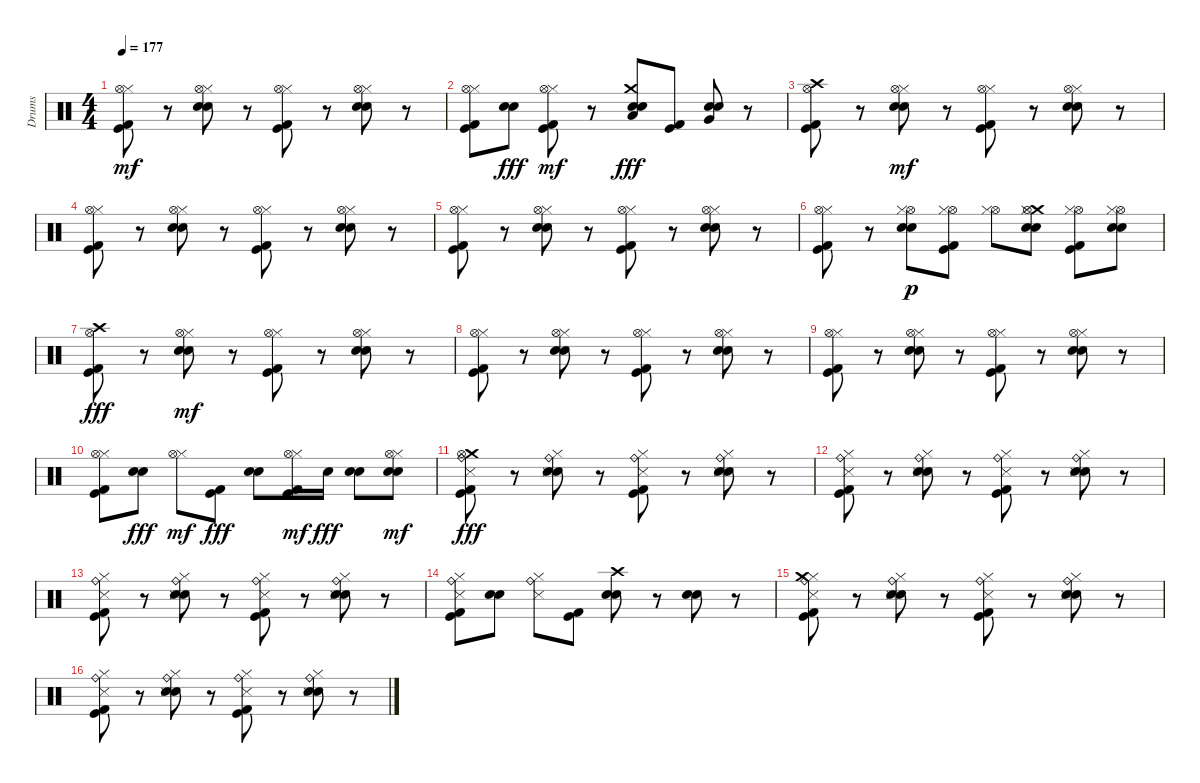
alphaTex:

\track ("Drums" "Drums") {instrument percussion}
\staff {score}
\articulation defaults
\ts (4 4)
\tempo 177
\clef neutral
\ks c
("Hi-Hat (closed)" "Kick (hit) 2" "Kick (hit)" "Hi-Hat (open)").8{dy mf} r.8 ("Hi-Hat (closed)" "Electric Snare (hit)" "Snare (hit) 2" "Hi-Hat (open)").8 r.8 ("Hi-Hat (closed)" "Kick (hit) 2" "Kick (hit)" "Hi-Hat (open)").8 r.8 ("Hi-Hat (closed)" "Electric Snare (hit)" "Snare (hit) 2" "Hi-Hat (open)").8 r.8 |
("Kick (hit) 2" "Kick (hit)" "Hi-Hat (closed)" "Hi-Hat (open)").8 ("Electric Snare (hit)" "Snare (hit) 2").8{dy fff} ("Kick (hit) 2" "Kick (hit)" "Hi-Hat (closed)" "Hi-Hat (open)").8{dy mf} r.8 ("Electric Snare (hit)" "Snare (hit) 2" "Crash medium (hit)" "Low Tom (hit)").8{dy fff} ("Kick (hit) 2" "Kick (hit)").8 ("Electric Snare (hit)" "Snare (hit) 2" "Very Low Tom (hit)").8 r.8 |
("Crash high (hit)" "Kick (hit) 2" "Kick (hit)" "Hi-Hat (open)").8 r.8 ("Hi-Hat (closed)" "Electric Snare (hit)" "Snare (hit) 2" "Hi-Hat (open)").8{dy mf} r.8 ("Hi-Hat (closed)" "Kick (hit) 2" "Kick (hit)" "Hi-Hat (open)").8 r.8 ("Hi-Hat (closed)" "Electric Snare (hit)" "Snare (hit) 2" "Hi-Hat (open)").8 r.8 |
("Hi-Hat (closed)" "Kick (hit) 2" "Kick (hit)" "Hi-Hat (open)").8 r.8 ("Hi-Hat (closed)" "Electric Snare (hit)" "Snare (hit) 2" "Hi-Hat (open)").8 r.8 ("Hi-Hat (closed)" "Kick (hit) 2" "Kick (hit)" "Hi-Hat (open)").8 r.8 ("Hi-Hat (closed)" "Electric Snare (hit)" "Snare (hit) 2" "Hi-Hat (open)").8 r.8 |
("Hi-Hat (closed)" "Kick (hit) 2" "Kick (hit)" "Hi-Hat (open)").8 r.8 ("Hi-Hat (closed)" "Electric Snare (hit)" "Snare (hit) 2" "Hi-Hat (open)").8 r.8 ("Hi-Hat (closed)" "Kick (hit) 2" "Kick (hit)" "Hi-Hat (open)").8 r.8 ("Hi-Hat (closed)" "Electric Snare (hit)" "Snare (hit) 2" "Hi-Hat (open)").8 r.8 |
("Kick (hit)" "Kick (hit) 2" "Hi-Hat (closed)" "Hi-Hat (open)").8 r.8 ("Electric Snare (hit)" "Snare (hit) 2" "Hi-Hat (open)" "Hi-Hat (closed)").8{dy p} ("Kick (hit) 2" "Kick (hit)" "Hi-Hat (open)" "Hi-Hat (closed)").8 ("Hi-Hat (open)" "Hi-Hat (closed)").8 ("Electric Snare (hit)" "Snare (hit) 2" "Crash medium (hit)" "Hi-Hat (open)" "Hi-Hat (closed)").8 ("Kick (hit) 2" "Kick (hit)" "Hi-Hat (open)" "Hi-Hat (closed)").8 ("Electric Snare (hit)" "Snare (hit) 2" "Hi-Hat (open)" "Hi-Hat (closed)").8 |
("Crash high (hit)" "Kick (hit) 2" "Kick (hit)" "Hi-Hat (open)").8{dy fff} r.8 ("Hi-Hat (closed)" "Electric Snare (hit)" "Snare (hit) 2" "Hi-Hat (open)").8{dy mf} r.8 ("Hi-Hat (closed)" "Kick (hit) 2" "Kick (hit)" "Hi-Hat (open)").8 r.8 ("Hi-Hat (closed)" "Electric Snare (hit)" "Snare (hit) 2" "Hi-Hat (open)").8 r.8 |
("Hi-Hat (closed)" "Kick (hit) 2" "Kick (hit)" "Hi-Hat (open)").8 r.8 ("Hi-Hat (closed)" "Electric Snare (hit)" "Snare (hit) 2" "Hi-Hat (open)").8 r.8 ("Hi-Hat (closed)" "Kick (hit) 2" "Kick (hit)" "Hi-Hat (open)").8 r.8 ("Hi-Hat (closed)" "Electric Snare (hit)" "Snare (hit) 2" "Hi-Hat (open)").8 r.8 |
("Hi-Hat (closed)" "Kick (hit) 2" "Kick (hit)" "Hi-Hat (open)").8 r.8 ("Hi-Hat (closed)" "Electric Snare (hit)" "Snare (hit) 2" "Hi-Hat (open)").8 r.8 ("Hi-Hat (closed)" "Kick (hit) 2" "Kick (hit)" "Hi-Hat (open)").8 r.8 ("Hi-Hat (closed)" "Electric Snare (hit)" "Snare (hit) 2" "Hi-Hat (open)").8 r.8 |
("Kick (hit)" "Kick (hit) 2" "Hi-Hat (closed)" "Hi-Hat (open)").8 ("Electric Snare (hit)" "Snare (hit) 2").8{dy fff} ("Hi-Hat (closed)" "Hi-Hat (open)").8{dy mf} ("Kick (hit) 2" "Kick (hit)").8{dy fff} ("Electric Snare (hit)" "Snare (hit) 2").8 ("Kick (hit) 2" "Kick (hit)" "Hi-Hat (closed)" "Hi-Hat (open)").16{dy mf} "Snare (hit) 2".16{dy fff} ("Electric Snare (hit)" "Snare (hit) 2").8 ("Electric Snare (hit)" "Snare (hit) 2" "Hi-Hat (closed)" "Hi-Hat (open)").8{dy mf} |
("Crash medium (hit)" "Kick (hit) 2" "Kick (hit)" "Hi-Hat (open)" "Snare (side stick) 3" "Ride (bell)").8{dy fff} r.8 ("Hi-Hat (closed)" "Electric Snare (hit)" "Snare (hit) 2" "Snare (side stick) 3" "Ride (bell)").8 r.8 ("Hi-Hat (closed)" "Kick (hit) 2" "Kick (hit)" "Snare (side stick) 3" "Ride (bell)").8 r.8 ("Hi-Hat (closed)" "Electric Snare (hit)" "Snare (hit) 2" "Snare (side stick) 3" "Ride (bell)").8 r.8 |
("Hi-Hat (closed)" "Kick (hit) 2" "Kick (hit)" "Snare (side stick) 3" "Ride (bell)").8 r.8 ("Hi-Hat (closed)" "Electric Snare (hit)" "Snare (hit) 2" "Snare (side stick) 3" "Ride (bell)").8 r.8 ("Hi-Hat (closed)" "Kick (hit) 2" "Kick (hit)" "Snare (side stick) 3" "Ride (bell)").8 r.8 ("Hi-Hat (closed)" "Electric Snare (hit)" "Snare (hit) 2" "Snare (side stick) 3" "Ride (bell)").8 r.8 |
("Hi-Hat (closed)" "Kick (hit) 2" "Kick (hit)" "Ride (bell)" "Snare (side stick) 3").8 r.8 ("Hi-Hat (closed)" "Electric Snare (hit)" "Snare (hit) 2" "Ride (bell)" "Snare (side stick) 3").8 r.8 ("Hi-Hat (closed)" "Kick (hit) 2" "Kick (hit)" "Ride (bell)" "Snare (side stick) 3").8 r.8 ("Hi-Hat (closed)" "Electric Snare (hit)" "Snare (hit) 2" "Ride (bell)" "Snare (side stick) 3").8 r.8 |
("Kick (hit) 2" "Kick (hit)" "Ride (bell)" "Hi-Hat (closed)" "Snare (side stick) 3").8 ("Electric Snare (hit)" "Snare (hit) 2").8 ("Ride (bell)" "Hi-Hat (closed)" "Snare (side stick) 3").8 ("Kick (hit) 2" "Kick (hit)").8 ("Electric Snare (hit)" "Snare (hit) 2" "Crash high (hit)").8 r.8 ("Electric Snare (hit)" "Snare (hit) 2").8 r.8 |
("Hi-Hat (closed)" "Kick (hit) 2" "Kick (hit)" "Snare (side stick) 3" "Ride (bell)" "Crash medium (hit)").8 r.8 ("Hi-Hat (closed)" "Electric Snare (hit)" "Snare (hit) 2" "Snare (side stick) 3" "Ride (bell)").8 r.8 ("Hi-Hat (closed)" "Kick (hit) 2" "Kick (hit)" "Snare (side stick) 3" "Ride (bell)").8 r.8 ("Hi-Hat (closed)" "Electric Snare (hit)" "Snare (hit) 2" "Snare (side stick) 3" "Ride (bell)").8 r.8 |
("Hi-Hat (closed)" "Kick (hit) 2" "Kick (hit)" "Snare (side stick) 3" "Ride (bell)").8 r.8 ("Hi-Hat (closed)" "Electric Snare (hit)" "Snare (hit) 2" "Snare (side stick) 3" "Ride (bell)").8 r.8 ("Hi-Hat (closed)" "Kick (hit) 2" "Kick (hit)" "Snare (side stick) 3" "Ride (bell)").8 r.8 ("Hi-Hat (closed)" "Electric Snare (hit)" "Snare (hit) 2" "Snare (side stick) 3" "Ride (bell)").8 r.8
